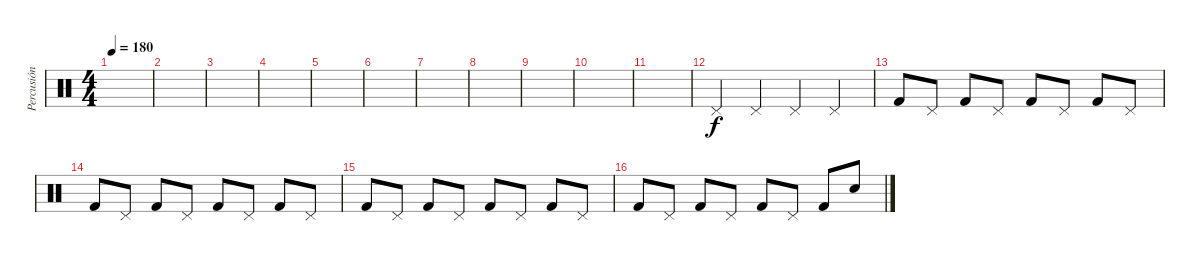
\track ("Percusión" "Percusión") {instrument percussion}
\staff {score}
\articulation defaults
\ts (4 4)
\tempo 180
\clef neutral
\ks c
|
|
|
|
|
|
|
|
|
|
|
"Pedal Hi-Hat (hit)".4 "Pedal Hi-Hat (hit)".4 "Pedal Hi-Hat (hit)".4 "Pedal Hi-Hat (hit)".4 |
"Kick (hit) 2".8 "Pedal Hi-Hat (hit)".8 "Kick (hit) 2".8 "Pedal Hi-Hat (hit)".8 "Kick (hit) 2".8 "Pedal Hi-Hat (hit)".8 "Kick (hit) 2".8 "Pedal Hi-Hat (hit)".8 |
"Kick (hit) 2".8 "Pedal Hi-Hat (hit)".8 "Kick (hit) 2".8 "Pedal Hi-Hat (hit)".8 "Kick (hit) 2".8 "Pedal Hi-Hat (hit)".8 "Kick (hit) 2".8 "Pedal Hi-Hat (hit)".8 |
"Kick (hit) 2".8 "Pedal Hi-Hat (hit)".8 "Kick (hit) 2".8 "Pedal Hi-Hat (hit)".8 "Kick (hit) 2".8 "Pedal Hi-Hat (hit)".8 "Kick (hit) 2".8 "Pedal Hi-Hat (hit)".8 |
"Kick (hit) 2".8 "Pedal Hi-Hat (hit)".8 "Kick (hit) 2".8 "Pedal Hi-Hat (hit)".8 "Kick (hit) 2".8 "Pedal Hi-Hat (hit)".8 "Kick (hit) 2".8 "Snare (hit) 2".8
